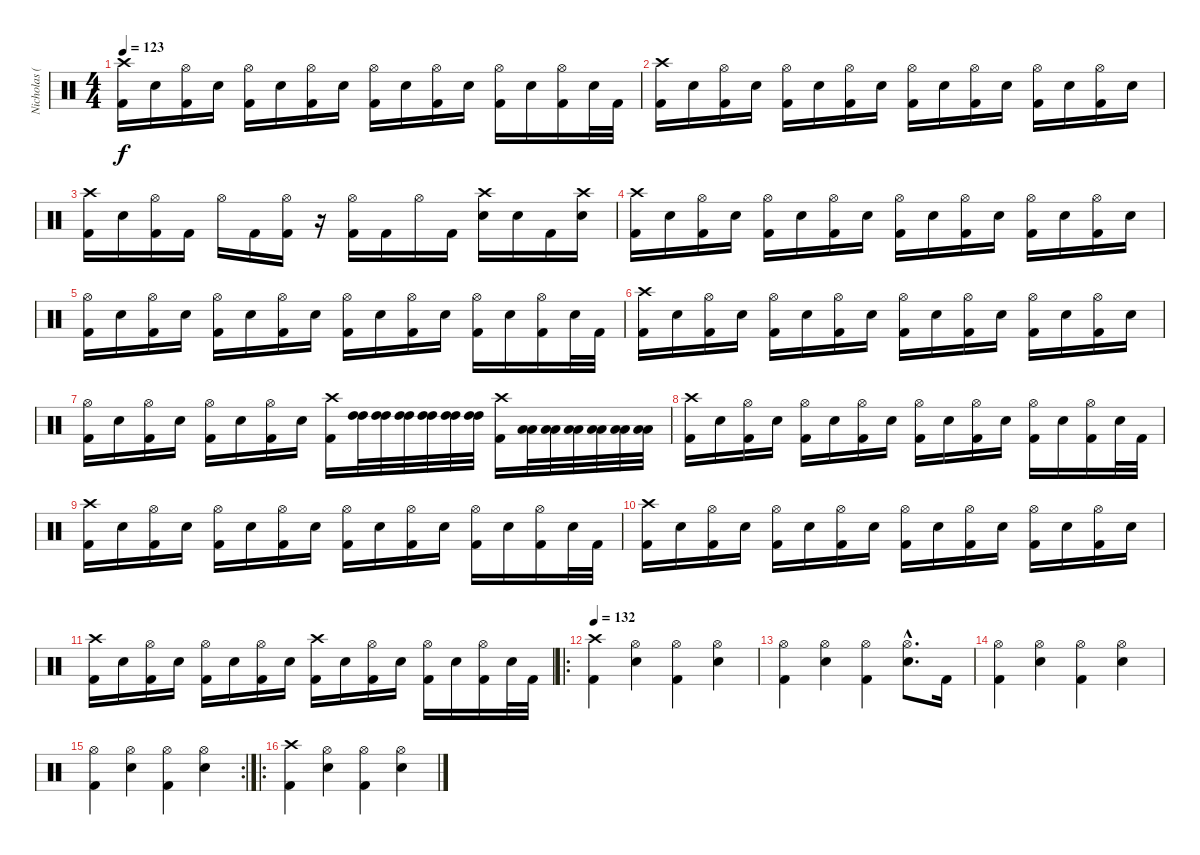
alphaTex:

\track ("Nicholas (Drums)" "Nicholas (") {instrument percussion}
\staff {score}
\articulation defaults
\ts (4 4)
\tempo 123
\clef neutral
\ks c
("Crash high (hit)" "Kick (hit) 2").16{dy f} "Electric Snare (hit)".16 ("Hi-Hat (open)" "Kick (hit) 2").16 "Electric Snare (hit)".16 ("Hi-Hat (open)" "Kick (hit) 2").16 "Electric Snare (hit)".16 ("Hi-Hat (open)" "Kick (hit) 2").16 "Electric Snare (hit)".16 ("Hi-Hat (open)" "Kick (hit) 2").16 "Electric Snare (hit)".16 ("Hi-Hat (open)" "Kick (hit) 2").16 "Electric Snare (hit)".16 ("Hi-Hat (open)" "Kick (hit) 2").16 "Electric Snare (hit)".16 ("Hi-Hat (open)" "Kick (hit) 2").16 "Electric Snare (hit)".32 "Kick (hit) 2".32 |
("Crash high (hit)" "Kick (hit) 2").16 "Electric Snare (hit)".16 ("Hi-Hat (open)" "Kick (hit) 2").16 "Electric Snare (hit)".16 ("Hi-Hat (open)" "Kick (hit) 2").16 "Electric Snare (hit)".16 ("Hi-Hat (open)" "Kick (hit) 2").16 "Electric Snare (hit)".16 ("Hi-Hat (open)" "Kick (hit) 2").16 "Electric Snare (hit)".16 ("Hi-Hat (open)" "Kick (hit) 2").16 "Electric Snare (hit)".16 ("Hi-Hat (open)" "Kick (hit) 2").16 "Electric Snare (hit)".16 ("Hi-Hat (open)" "Kick (hit) 2").16 "Electric Snare (hit)".16 |
("Crash high (hit)" "Kick (hit) 2").16 "Electric Snare (hit)".16 ("Hi-Hat (open)" "Kick (hit) 2").16 "Kick (hit) 2".16 "Hi-Hat (open)".16 "Kick (hit) 2".16 ("Hi-Hat (open)" "Kick (hit) 2").16 r.16 ("Hi-Hat (open)" "Kick (hit) 2").16 "Kick (hit) 2".16 "Hi-Hat (open)".16 "Kick (hit) 2".16 ("Crash high (hit)" "Electric Snare (hit)").16 "Electric Snare (hit)".16 "Kick (hit) 2".16 ("Crash high (hit)" "Electric Snare (hit)").16 |
("Crash high (hit)" "Kick (hit) 2").16 "Electric Snare (hit)".16 ("Hi-Hat (open)" "Kick (hit) 2").16 "Electric Snare (hit)".16 ("Hi-Hat (open)" "Kick (hit) 2").16 "Electric Snare (hit)".16 ("Hi-Hat (open)" "Kick (hit) 2").16 "Electric Snare (hit)".16 ("Hi-Hat (open)" "Kick (hit) 2").16 "Electric Snare (hit)".16 ("Hi-Hat (open)" "Kick (hit) 2").16 "Electric Snare (hit)".16 ("Hi-Hat (open)" "Kick (hit) 2").16 "Electric Snare (hit)".16 ("Hi-Hat (open)" "Kick (hit) 2").16 "Electric Snare (hit)".16 |
("Hi-Hat (open)" "Kick (hit) 2").16 "Electric Snare (hit)".16 ("Hi-Hat (open)" "Kick (hit) 2").16 "Electric Snare (hit)".16 ("Hi-Hat (open)" "Kick (hit) 2").16 "Electric Snare (hit)".16 ("Hi-Hat (open)" "Kick (hit) 2").16 "Electric Snare (hit)".16 ("Hi-Hat (open)" "Kick (hit) 2").16 "Electric Snare (hit)".16 ("Hi-Hat (open)" "Kick (hit) 2").16 "Electric Snare (hit)".16 ("Hi-Hat (open)" "Kick (hit) 2").16 "Electric Snare (hit)".16 ("Hi-Hat (open)" "Kick (hit) 2").16 "Electric Snare (hit)".32 "Kick (hit) 2".32 |
("Crash high (hit)" "Kick (hit) 2").16 "Electric Snare (hit)".16 ("Hi-Hat (open)" "Kick (hit) 2").16 "Electric Snare (hit)".16 ("Hi-Hat (open)" "Kick (hit) 2").16 "Electric Snare (hit)".16 ("Hi-Hat (open)" "Kick (hit) 2").16 "Electric Snare (hit)".16 ("Hi-Hat (open)" "Kick (hit) 2").16 "Electric Snare (hit)".16 ("Hi-Hat (open)" "Kick (hit) 2").16 "Electric Snare (hit)".16 ("Hi-Hat (open)" "Kick (hit) 2").16 "Electric Snare (hit)".16 ("Hi-Hat (open)" "Kick (hit) 2").16 "Electric Snare (hit)".16 |
("Hi-Hat (open)" "Kick (hit) 2").16 "Electric Snare (hit)".16 ("Hi-Hat (open)" "Kick (hit) 2").16 "Electric Snare (hit)".16 ("Hi-Hat (open)" "Kick (hit) 2").16 "Electric Snare (hit)".16 ("Hi-Hat (open)" "Kick (hit) 2").16 "Electric Snare (hit)".16 ("Crash high (hit)" "Kick (hit) 2").16 ("High Tom (hit)" "High Tom (hit)").32 ("High Tom (hit)" "High Tom (hit)").32 ("High Tom (hit)" "High Tom (hit)").32 ("High Tom (hit)" "High Tom (hit)").32 ("High Tom (hit)" "High Tom (hit)").32 ("High Tom (hit)" "High Tom (hit)").32 ("Crash high (hit)" "Kick (hit) 2").16 ("Low Tom (hit)" "Low Tom (hit)").32 ("Low Tom (hit)" "Low Tom (hit)").32 ("Low Tom (hit)" "Low Tom (hit)").32 ("Low Tom (hit)" "Low Tom (hit)").32 ("Low Tom (hit)" "Low Tom (hit)").32 ("Low Tom (hit)" "Low Tom (hit)").32 |
("Crash high (hit)" "Kick (hit) 2").16 "Electric Snare (hit)".16 ("Hi-Hat (open)" "Kick (hit) 2").16 "Electric Snare (hit)".16 ("Hi-Hat (open)" "Kick (hit) 2").16 "Electric Snare (hit)".16 ("Hi-Hat (open)" "Kick (hit) 2").16 "Electric Snare (hit)".16 ("Hi-Hat (open)" "Kick (hit) 2").16 "Electric Snare (hit)".16 ("Hi-Hat (open)" "Kick (hit) 2").16 "Electric Snare (hit)".16 ("Hi-Hat (open)" "Kick (hit) 2").16 "Electric Snare (hit)".16 ("Hi-Hat (open)" "Kick (hit) 2").16 "Electric Snare (hit)".32 "Kick (hit) 2".32 |
("Crash high (hit)" "Kick (hit) 2").16 "Electric Snare (hit)".16 ("Hi-Hat (open)" "Kick (hit) 2").16 "Electric Snare (hit)".16 ("Hi-Hat (open)" "Kick (hit) 2").16 "Electric Snare (hit)".16 ("Hi-Hat (open)" "Kick (hit) 2").16 "Electric Snare (hit)".16 ("Hi-Hat (open)" "Kick (hit) 2").16 "Electric Snare (hit)".16 ("Hi-Hat (open)" "Kick (hit) 2").16 "Electric Snare (hit)".16 ("Hi-Hat (open)" "Kick (hit) 2").16 "Electric Snare (hit)".16 ("Hi-Hat (open)" "Kick (hit) 2").16 "Electric Snare (hit)".32 "Kick (hit) 2".32 |
("Crash high (hit)" "Kick (hit) 2").16 "Electric Snare (hit)".16 ("Hi-Hat (open)" "Kick (hit) 2").16 "Electric Snare (hit)".16 ("Hi-Hat (open)" "Kick (hit) 2").16 "Electric Snare (hit)".16 ("Hi-Hat (open)" "Kick (hit) 2").16 "Electric Snare (hit)".16 ("Hi-Hat (open)" "Kick (hit) 2").16 "Electric Snare (hit)".16 ("Hi-Hat (open)" "Kick (hit) 2").16 "Electric Snare (hit)".16 ("Hi-Hat (open)" "Kick (hit) 2").16 "Electric Snare (hit)".16 ("Hi-Hat (open)" "Kick (hit) 2").16 "Electric Snare (hit)".16 |
("Crash high (hit)" "Kick (hit) 2").16 "Electric Snare (hit)".16 ("Hi-Hat (open)" "Kick (hit) 2").16 "Electric Snare (hit)".16 ("Hi-Hat (open)" "Kick (hit) 2").16 "Electric Snare (hit)".16 ("Hi-Hat (open)" "Kick (hit) 2").16 "Electric Snare (hit)".16 ("Crash high (hit)" "Kick (hit) 2").16 "Electric Snare (hit)".16 ("Hi-Hat (open)" "Kick (hit) 2").16 "Electric Snare (hit)".16 ("Hi-Hat (open)" "Kick (hit) 2").16 "Electric Snare (hit)".16 ("Hi-Hat (open)" "Kick (hit) 2").16 "Electric Snare (hit)".32 "Kick (hit) 2".32 |
\ro
\tempo 132
("Crash high (hit)" "Kick (hit) 2").4 ("Hi-Hat (open)" "Electric Snare (hit)").4 ("Hi-Hat (open)" "Kick (hit) 2").4 ("Hi-Hat (open)" "Electric Snare (hit)").4 |
("Hi-Hat (open)" "Kick (hit) 2").4 ("Hi-Hat (open)" "Electric Snare (hit)").4 ("Hi-Hat (open)" "Kick (hit) 2").4 ("Hi-Hat (open)"{hac} "Electric Snare (hit)"{hac}).8{d} "Kick (hit) 2".16 |
("Hi-Hat (open)" "Kick (hit) 2").4 ("Hi-Hat (open)" "Electric Snare (hit)").4 ("Hi-Hat (open)" "Kick (hit) 2").4 ("Hi-Hat (open)" "Electric Snare (hit)").4 |
\rc 2
("Hi-Hat (open)" "Kick (hit) 2").4 ("Hi-Hat (open)" "Electric Snare (hit)").4 ("Hi-Hat (open)" "Kick (hit) 2").4 ("Hi-Hat (open)" "Electric Snare (hit)").4 |
\ro
("Crash high (hit)" "Kick (hit) 2").4 ("Hi-Hat (open)" "Electric Snare (hit)").4 ("Hi-Hat (open)" "Kick (hit) 2").4 ("Hi-Hat (open)" "Electric Snare (hit)").4
